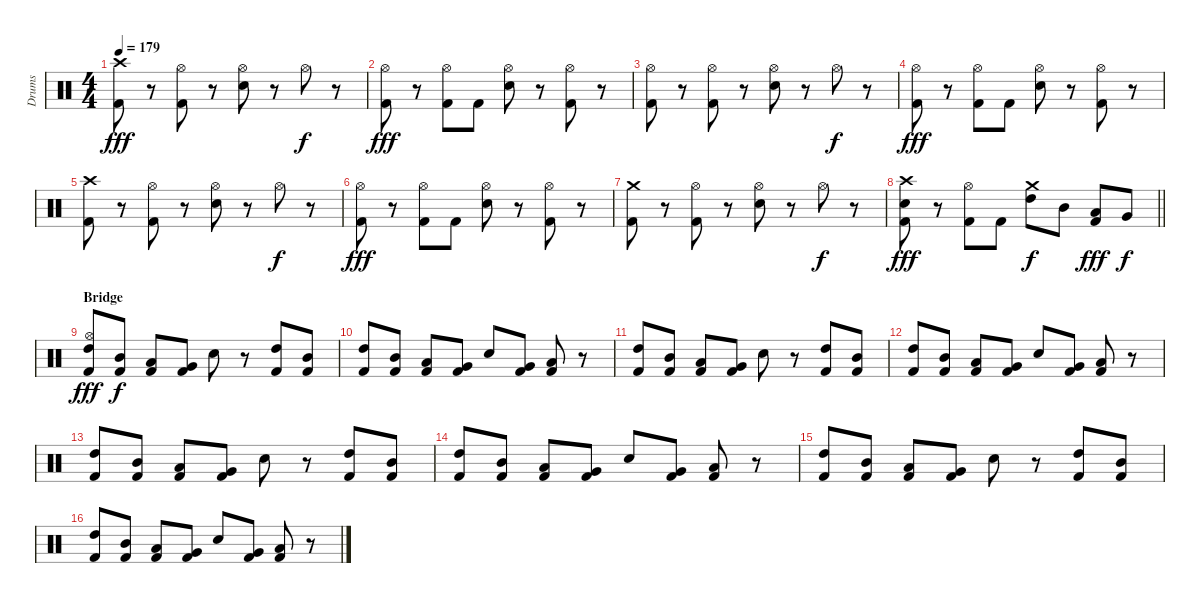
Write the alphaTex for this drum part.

\track ("Drums" "Drums") {instrument percussion}
\staff {score}
\articulation defaults
\ts (4 4)
\tempo 179
\clef neutral
\ks c
("Crash high (hit)" "Kick (hit) 2").8{dy fff} r.8 ("Hi-Hat (open)" "Kick (hit) 2").8 r.8 ("Hi-Hat (open)" "Snare (hit) 2").8 r.8 "Hi-Hat (open)".8{dy f} r.8 |
("Hi-Hat (open)" "Kick (hit) 2").8{dy fff} r.8 ("Hi-Hat (open)" "Kick (hit) 2").8 "Kick (hit) 2".8 ("Hi-Hat (open)" "Snare (hit) 2").8 r.8 ("Hi-Hat (open)" "Kick (hit) 2").8 r.8 |
("Hi-Hat (open)" "Kick (hit) 2").8 r.8 ("Hi-Hat (open)" "Kick (hit) 2").8 r.8 ("Hi-Hat (open)" "Snare (hit) 2").8 r.8 "Hi-Hat (open)".8{dy f} r.8 |
("Hi-Hat (open)" "Kick (hit) 2").8{dy fff} r.8 ("Hi-Hat (open)" "Kick (hit) 2").8 "Kick (hit) 2".8 ("Hi-Hat (open)" "Snare (hit) 2").8 r.8 ("Hi-Hat (open)" "Kick (hit) 2").8 r.8 |
("Crash high (hit)" "Kick (hit) 2").8 r.8 ("Hi-Hat (open)" "Kick (hit) 2").8 r.8 ("Hi-Hat (open)" "Snare (hit) 2").8 r.8 "Hi-Hat (open)".8{dy f} r.8 |
("Hi-Hat (open)" "Kick (hit) 2").8{dy fff} r.8 ("Hi-Hat (open)" "Kick (hit) 2").8 "Kick (hit) 2".8 ("Hi-Hat (open)" "Snare (hit) 2").8 r.8 ("Hi-Hat (open)" "Kick (hit) 2").8 r.8 |
("Crash medium (hit)" "Kick (hit) 2").8 r.8 ("Hi-Hat (open)" "Kick (hit) 2").8 r.8 ("Hi-Hat (open)" "Snare (hit) 2").8 r.8 "Hi-Hat (open)".8{dy f} r.8 |
\barLineRight lightlight
("Crash high (hit)" "Snare (hit) 2" "Kick (hit) 2").8{dy fff} r.8 ("Hi-Hat (open)" "Kick (hit) 2").8 "Kick (hit) 2".8 ("Crash medium (hit)" "High Tom (hit)").8{dy f} "Mid Tom (hit)".8 ("Low Tom (hit)" "Kick (hit) 2").8{dy fff} "Very Low Tom (hit)".8{dy f} |
\section ("" "Bridge")
("Hi-Hat (open)" "High Tom (hit)" "Kick (hit) 2").8{dy fff} ("Mid Tom (hit)" "Kick (hit) 2").8{dy f} ("Low Tom (hit)" "Kick (hit) 2").8 ("Very Low Tom (hit)" "Kick (hit) 2").8 "Snare (hit) 2".8 r.8 ("High Tom (hit)" "Kick (hit) 2").8 ("Mid Tom (hit)" "Kick (hit) 2").8 |
("High Tom (hit)" "Kick (hit) 2").8 ("Mid Tom (hit)" "Kick (hit) 2").8 ("Low Tom (hit)" "Kick (hit) 2").8 ("Very Low Tom (hit)" "Kick (hit) 2").8 "Snare (hit) 2".8 ("Very Low Tom (hit)" "Kick (hit) 2").8 ("Low Tom (hit)" "Kick (hit) 2").8 r.8 |
("High Tom (hit)" "Kick (hit) 2").8 ("Mid Tom (hit)" "Kick (hit) 2").8 ("Low Tom (hit)" "Kick (hit) 2").8 ("Very Low Tom (hit)" "Kick (hit) 2").8 "Snare (hit) 2".8 r.8 ("High Tom (hit)" "Kick (hit) 2").8 ("Mid Tom (hit)" "Kick (hit) 2").8 |
("High Tom (hit)" "Kick (hit) 2").8 ("Mid Tom (hit)" "Kick (hit) 2").8 ("Low Tom (hit)" "Kick (hit) 2").8 ("Very Low Tom (hit)" "Kick (hit) 2").8 "Snare (hit) 2".8 ("Very Low Tom (hit)" "Kick (hit) 2").8 ("Low Tom (hit)" "Kick (hit) 2").8 r.8 |
("High Tom (hit)" "Kick (hit) 2").8 ("Mid Tom (hit)" "Kick (hit) 2").8 ("Low Tom (hit)" "Kick (hit) 2").8 ("Very Low Tom (hit)" "Kick (hit) 2").8 "Snare (hit) 2".8 r.8 ("High Tom (hit)" "Kick (hit) 2").8 ("Mid Tom (hit)" "Kick (hit) 2").8 |
("High Tom (hit)" "Kick (hit) 2").8 ("Mid Tom (hit)" "Kick (hit) 2").8 ("Low Tom (hit)" "Kick (hit) 2").8 ("Very Low Tom (hit)" "Kick (hit) 2").8 "Snare (hit) 2".8 ("Very Low Tom (hit)" "Kick (hit) 2").8 ("Low Tom (hit)" "Kick (hit) 2").8 r.8 |
("High Tom (hit)" "Kick (hit) 2").8 ("Mid Tom (hit)" "Kick (hit) 2").8 ("Low Tom (hit)" "Kick (hit) 2").8 ("Very Low Tom (hit)" "Kick (hit) 2").8 "Snare (hit) 2".8 r.8 ("High Tom (hit)" "Kick (hit) 2").8 ("Mid Tom (hit)" "Kick (hit) 2").8 |
("High Tom (hit)" "Kick (hit) 2").8 ("Mid Tom (hit)" "Kick (hit) 2").8 ("Low Tom (hit)" "Kick (hit) 2").8 ("Very Low Tom (hit)" "Kick (hit) 2").8 "Snare (hit) 2".8 ("Very Low Tom (hit)" "Kick (hit) 2").8 ("Low Tom (hit)" "Kick (hit) 2").8 r.8
